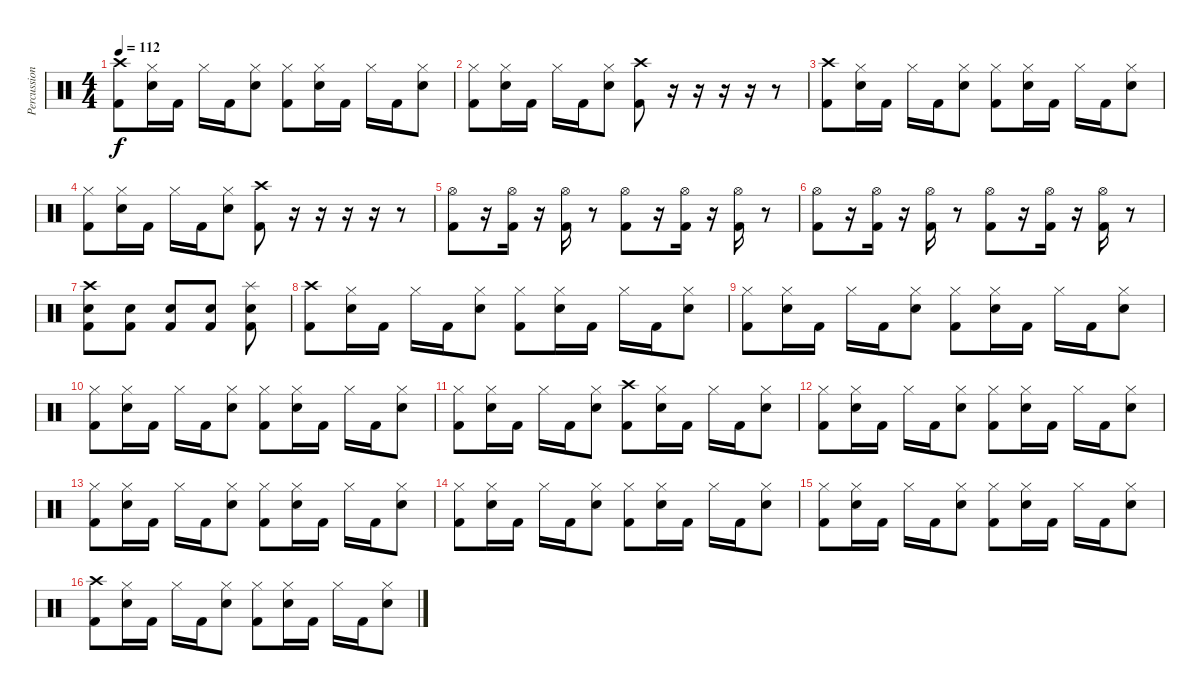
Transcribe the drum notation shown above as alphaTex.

\track ("Percussion" "Percussion") {instrument percussion}
\staff {score}
\articulation defaults
\ts (4 4)
\tempo 112
\clef neutral
\ks c
("Crash high (hit)" "Kick (hit) 2").8{dy f} ("Hi-Hat (closed)" "Snare (hit) 2").16 "Kick (hit) 2".16 "Hi-Hat (closed)".16 "Kick (hit) 2".16 ("Hi-Hat (closed)" "Snare (hit) 2").8 ("Hi-Hat (closed)" "Kick (hit) 2").8 ("Hi-Hat (closed)" "Snare (hit) 2").16 "Kick (hit) 2".16 "Hi-Hat (closed)".16 "Kick (hit) 2".16 ("Hi-Hat (closed)" "Snare (hit) 2").8 |
("Hi-Hat (closed)" "Kick (hit) 2").8 ("Hi-Hat (closed)" "Snare (hit) 2").16 "Kick (hit) 2".16 "Hi-Hat (closed)".16 "Kick (hit) 2".16 ("Hi-Hat (closed)" "Snare (hit) 2").8 ("Crash high (hit)" "Kick (hit) 2").8 r.16 r.16 r.16 r.16 r.8 |
("Crash high (hit)" "Kick (hit) 2").8 ("Hi-Hat (closed)" "Snare (hit) 2").16 "Kick (hit) 2".16 "Hi-Hat (closed)".16 "Kick (hit) 2".16 ("Hi-Hat (closed)" "Snare (hit) 2").8 ("Hi-Hat (closed)" "Kick (hit) 2").8 ("Hi-Hat (closed)" "Snare (hit) 2").16 "Kick (hit) 2".16 "Hi-Hat (closed)".16 "Kick (hit) 2".16 ("Hi-Hat (closed)" "Snare (hit) 2").8 |
("Hi-Hat (closed)" "Kick (hit) 2").8 ("Hi-Hat (closed)" "Snare (hit) 2").16 "Kick (hit) 2".16 "Hi-Hat (closed)".16 "Kick (hit) 2".16 ("Hi-Hat (closed)" "Snare (hit) 2").8 ("Crash high (hit)" "Kick (hit) 2").8 r.16 r.16 r.16 r.16 r.8 |
("Hi-Hat (open)" "Kick (hit) 2").8 r.16 ("Hi-Hat (open)" "Kick (hit) 2").16 r.16 ("Hi-Hat (open)" "Kick (hit) 2").16 r.8 ("Hi-Hat (open)" "Kick (hit) 2").8 r.16 ("Hi-Hat (open)" "Kick (hit) 2").16 r.16 ("Hi-Hat (open)" "Kick (hit) 2").16 r.8 |
("Hi-Hat (open)" "Kick (hit) 2").8 r.16 ("Hi-Hat (open)" "Kick (hit) 2").16 r.16 ("Hi-Hat (open)" "Kick (hit) 2").16 r.8 ("Hi-Hat (open)" "Kick (hit) 2").8 r.16 ("Hi-Hat (open)" "Kick (hit) 2").16 r.16 ("Hi-Hat (open)" "Kick (hit) 2").16 r.8 |
("Crash high (hit)" "Snare (hit) 2" "Kick (hit) 2").8 ("Snare (hit) 2" "Kick (hit) 2").8 ("Snare (hit) 2" "Kick (hit) 2").8 ("Snare (hit) 2" "Kick (hit) 2").8 ("Splash (hit)" "Snare (hit) 2" "Kick (hit) 2").8 |
("Crash high (hit)" "Kick (hit) 2").8 ("Hi-Hat (closed)" "Snare (hit) 2").16 "Kick (hit) 2".16 "Hi-Hat (closed)".16 "Kick (hit) 2".16 ("Hi-Hat (closed)" "Snare (hit) 2").8 ("Hi-Hat (closed)" "Kick (hit) 2").8 ("Hi-Hat (closed)" "Snare (hit) 2").16 "Kick (hit) 2".16 "Hi-Hat (closed)".16 "Kick (hit) 2".16 ("Hi-Hat (closed)" "Snare (hit) 2").8 |
("Hi-Hat (closed)" "Kick (hit) 2").8 ("Hi-Hat (closed)" "Snare (hit) 2").16 "Kick (hit) 2".16 "Hi-Hat (closed)".16 "Kick (hit) 2".16 ("Hi-Hat (closed)" "Snare (hit) 2").8 ("Hi-Hat (closed)" "Kick (hit) 2").8 ("Hi-Hat (closed)" "Snare (hit) 2").16 "Kick (hit) 2".16 "Hi-Hat (closed)".16 "Kick (hit) 2".16 ("Hi-Hat (closed)" "Snare (hit) 2").8 |
("Hi-Hat (closed)" "Kick (hit) 2").8 ("Hi-Hat (closed)" "Snare (hit) 2").16 "Kick (hit) 2".16 "Hi-Hat (closed)".16 "Kick (hit) 2".16 ("Hi-Hat (closed)" "Snare (hit) 2").8 ("Hi-Hat (closed)" "Kick (hit) 2").8 ("Hi-Hat (closed)" "Snare (hit) 2").16 "Kick (hit) 2".16 "Hi-Hat (closed)".16 "Kick (hit) 2".16 ("Hi-Hat (closed)" "Snare (hit) 2").8 |
("Hi-Hat (closed)" "Kick (hit) 2").8 ("Hi-Hat (closed)" "Snare (hit) 2").16 "Kick (hit) 2".16 "Hi-Hat (closed)".16 "Kick (hit) 2".16 ("Hi-Hat (closed)" "Snare (hit) 2").8 ("Crash high (hit)" "Kick (hit) 2").8 ("Hi-Hat (closed)" "Snare (hit) 2").16 "Kick (hit) 2".16 "Hi-Hat (closed)".16 "Kick (hit) 2".16 ("Hi-Hat (closed)" "Snare (hit) 2").8 |
("Hi-Hat (closed)" "Kick (hit) 2").8 ("Hi-Hat (closed)" "Snare (hit) 2").16 "Kick (hit) 2".16 "Hi-Hat (closed)".16 "Kick (hit) 2".16 ("Hi-Hat (closed)" "Snare (hit) 2").8 ("Hi-Hat (closed)" "Kick (hit) 2").8 ("Hi-Hat (closed)" "Snare (hit) 2").16 "Kick (hit) 2".16 "Hi-Hat (closed)".16 "Kick (hit) 2".16 ("Hi-Hat (closed)" "Snare (hit) 2").8 |
("Hi-Hat (closed)" "Kick (hit) 2").8 ("Hi-Hat (closed)" "Snare (hit) 2").16 "Kick (hit) 2".16 "Hi-Hat (closed)".16 "Kick (hit) 2".16 ("Hi-Hat (closed)" "Snare (hit) 2").8 ("Hi-Hat (closed)" "Kick (hit) 2").8 ("Hi-Hat (closed)" "Snare (hit) 2").16 "Kick (hit) 2".16 "Hi-Hat (closed)".16 "Kick (hit) 2".16 ("Hi-Hat (closed)" "Snare (hit) 2").8 |
("Hi-Hat (closed)" "Kick (hit) 2").8 ("Hi-Hat (closed)" "Snare (hit) 2").16 "Kick (hit) 2".16 "Hi-Hat (closed)".16 "Kick (hit) 2".16 ("Hi-Hat (closed)" "Snare (hit) 2").8 ("Hi-Hat (closed)" "Kick (hit) 2").8 ("Hi-Hat (closed)" "Snare (hit) 2").16 "Kick (hit) 2".16 "Hi-Hat (closed)".16 "Kick (hit) 2".16 ("Hi-Hat (closed)" "Snare (hit) 2").8 |
("Hi-Hat (closed)" "Kick (hit) 2").8 ("Hi-Hat (closed)" "Snare (hit) 2").16 "Kick (hit) 2".16 "Hi-Hat (closed)".16 "Kick (hit) 2".16 ("Hi-Hat (closed)" "Snare (hit) 2").8 ("Hi-Hat (closed)" "Kick (hit) 2").8 ("Hi-Hat (closed)" "Snare (hit) 2").16 "Kick (hit) 2".16 "Hi-Hat (closed)".16 "Kick (hit) 2".16 ("Hi-Hat (closed)" "Snare (hit) 2").8 |
("Crash high (hit)" "Kick (hit) 2").8 ("Hi-Hat (closed)" "Snare (hit) 2").16 "Kick (hit) 2".16 "Hi-Hat (closed)".16 "Kick (hit) 2".16 ("Hi-Hat (closed)" "Snare (hit) 2").8 ("Hi-Hat (closed)" "Kick (hit) 2").8 ("Hi-Hat (closed)" "Snare (hit) 2").16 "Kick (hit) 2".16 "Hi-Hat (closed)".16 "Kick (hit) 2".16 ("Hi-Hat (closed)" "Snare (hit) 2").8
